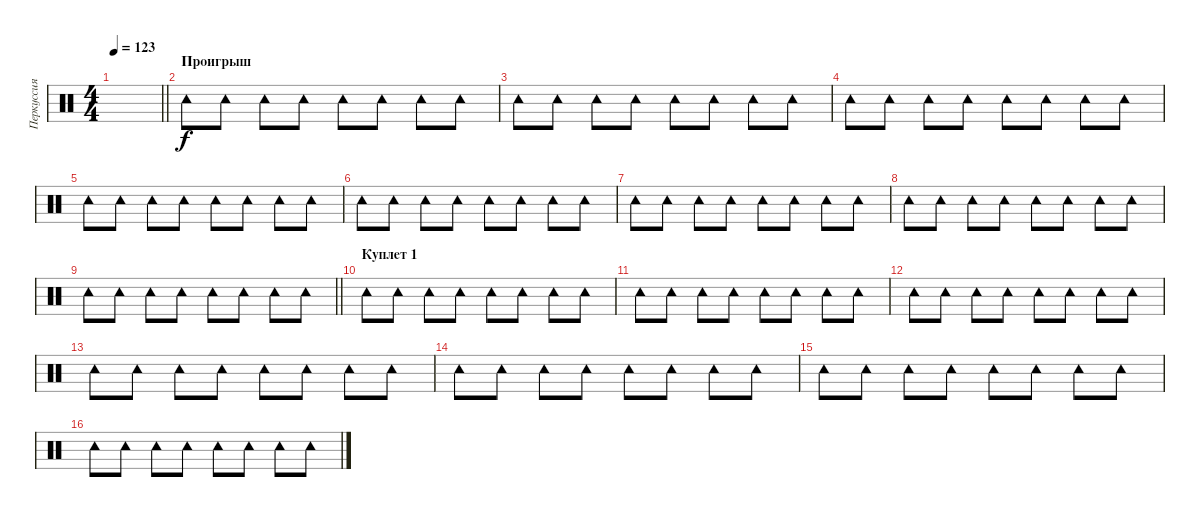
\track ("Перкуссия 1" "Перкуссия ") {instrument percussion}
\staff {score}
\articulation defaults
\ts (4 4)
\tempo 123
\clef neutral
\barLineRight lightlight
\ks c
|
\section ("" "Проигрыш")
"Tambourine (hit)".8 "Tambourine (hit)".8 "Tambourine (hit)".8 "Tambourine (hit)".8 "Tambourine (hit)".8 "Tambourine (hit)".8 "Tambourine (hit)".8 "Tambourine (hit)".8 |
"Tambourine (hit)".8 "Tambourine (hit)".8 "Tambourine (hit)".8 "Tambourine (hit)".8 "Tambourine (hit)".8 "Tambourine (hit)".8 "Tambourine (hit)".8 "Tambourine (hit)".8 |
"Tambourine (hit)".8 "Tambourine (hit)".8 "Tambourine (hit)".8 "Tambourine (hit)".8 "Tambourine (hit)".8 "Tambourine (hit)".8 "Tambourine (hit)".8 "Tambourine (hit)".8 |
"Tambourine (hit)".8 "Tambourine (hit)".8 "Tambourine (hit)".8 "Tambourine (hit)".8 "Tambourine (hit)".8 "Tambourine (hit)".8 "Tambourine (hit)".8 "Tambourine (hit)".8 |
"Tambourine (hit)".8 "Tambourine (hit)".8 "Tambourine (hit)".8 "Tambourine (hit)".8 "Tambourine (hit)".8 "Tambourine (hit)".8 "Tambourine (hit)".8 "Tambourine (hit)".8 |
"Tambourine (hit)".8 "Tambourine (hit)".8 "Tambourine (hit)".8 "Tambourine (hit)".8 "Tambourine (hit)".8 "Tambourine (hit)".8 "Tambourine (hit)".8 "Tambourine (hit)".8 |
"Tambourine (hit)".8 "Tambourine (hit)".8 "Tambourine (hit)".8 "Tambourine (hit)".8 "Tambourine (hit)".8 "Tambourine (hit)".8 "Tambourine (hit)".8 "Tambourine (hit)".8 |
\barLineRight lightlight "Tambourine (hit)".8 "Tambourine (hit)".8 "Tambourine (hit)".8 "Tambourine (hit)".8 "Tambourine (hit)".8 "Tambourine (hit)".8 "Tambourine (hit)".8 "Tambourine (hit)".8
|
\section ("" "Куплет 1")
"Tambourine (hit)".8 "Tambourine (hit)".8 "Tambourine (hit)".8 "Tambourine (hit)".8 "Tambourine (hit)".8 "Tambourine (hit)".8 "Tambourine (hit)".8 "Tambourine (hit)".8 |
"Tambourine (hit)".8 "Tambourine (hit)".8 "Tambourine (hit)".8 "Tambourine (hit)".8 "Tambourine (hit)".8 "Tambourine (hit)".8 "Tambourine (hit)".8 "Tambourine (hit)".8 |
"Tambourine (hit)".8 "Tambourine (hit)".8 "Tambourine (hit)".8 "Tambourine (hit)".8 "Tambourine (hit)".8 "Tambourine (hit)".8 "Tambourine (hit)".8 "Tambourine (hit)".8 |
"Tambourine (hit)".8 "Tambourine (hit)".8 "Tambourine (hit)".8 "Tambourine (hit)".8 "Tambourine (hit)".8 "Tambourine (hit)".8 "Tambourine (hit)".8 "Tambourine (hit)".8 |
"Tambourine (hit)".8 "Tambourine (hit)".8 "Tambourine (hit)".8 "Tambourine (hit)".8 "Tambourine (hit)".8 "Tambourine (hit)".8 "Tambourine (hit)".8 "Tambourine (hit)".8 |
"Tambourine (hit)".8 "Tambourine (hit)".8 "Tambourine (hit)".8 "Tambourine (hit)".8 "Tambourine (hit)".8 "Tambourine (hit)".8 "Tambourine (hit)".8 "Tambourine (hit)".8 |
"Tambourine (hit)".8 "Tambourine (hit)".8 "Tambourine (hit)".8 "Tambourine (hit)".8 "Tambourine (hit)".8 "Tambourine (hit)".8 "Tambourine (hit)".8 "Tambourine (hit)".8
